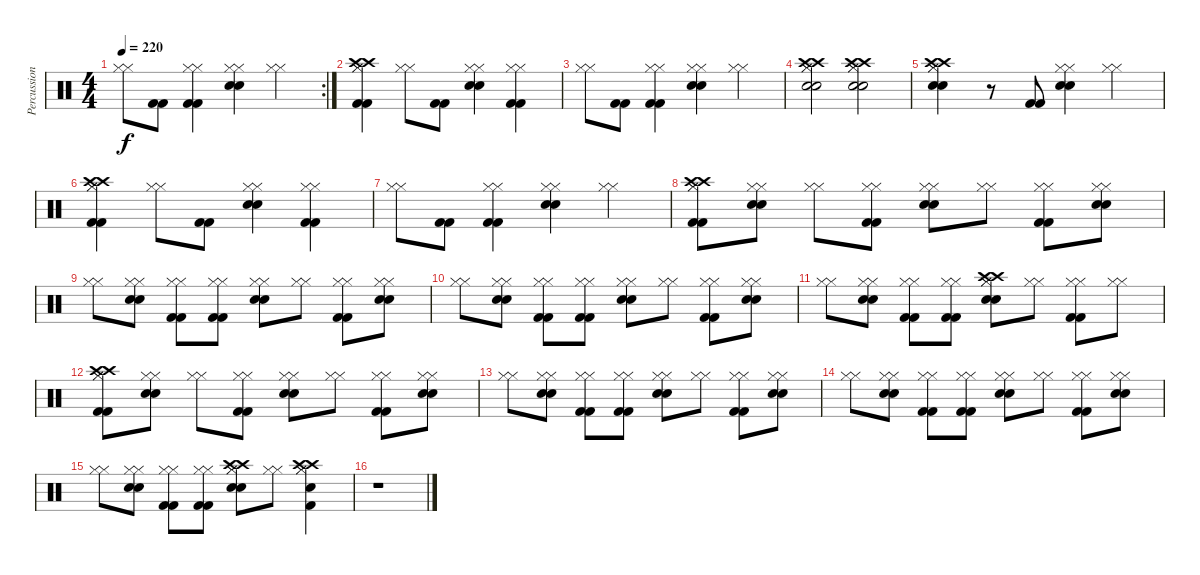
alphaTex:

\track ("Percussion" "Percussion") {instrument percussion}
\staff {score}
\articulation defaults
\rc 2
\ts (4 4)
\tempo 220
\clef neutral
\ks c
("Hi-Hat (closed)" "Hi-Hat (closed)").8{dy f} ("Kick (hit) 2" "Kick (hit) 2").8 ("Hi-Hat (closed)" "Hi-Hat (closed)" "Kick (hit) 2" "Kick (hit) 2").4 ("Hi-Hat (closed)" "Hi-Hat (closed)" "Electric Snare (hit)" "Electric Snare (hit)").4 ("Hi-Hat (closed)" "Hi-Hat (closed)").4 |
("Hi-Hat (closed)" "Hi-Hat (closed)" "Kick (hit) 2" "Kick (hit) 2" "Crash high (hit)" "Crash high (hit)").4 ("Hi-Hat (closed)" "Hi-Hat (closed)").8 ("Kick (hit) 2" "Kick (hit) 2").8 ("Hi-Hat (closed)" "Hi-Hat (closed)" "Electric Snare (hit)" "Electric Snare (hit)").4 ("Hi-Hat (closed)" "Hi-Hat (closed)" "Kick (hit) 2" "Kick (hit) 2").4 |
("Hi-Hat (closed)" "Hi-Hat (closed)").8 ("Kick (hit) 2" "Kick (hit) 2").8 ("Hi-Hat (closed)" "Hi-Hat (closed)" "Kick (hit) 2" "Kick (hit) 2").4 ("Hi-Hat (closed)" "Hi-Hat (closed)" "Electric Snare (hit)" "Electric Snare (hit)").4 ("Hi-Hat (closed)" "Hi-Hat (closed)").4 |
("Hi-Hat (closed)" "Hi-Hat (closed)" "Electric Snare (hit)" "Electric Snare (hit)" "Crash high (hit)" "Crash high (hit)").2 ("Hi-Hat (closed)" "Hi-Hat (closed)" "Electric Snare (hit)" "Electric Snare (hit)" "Crash high (hit)" "Crash high (hit)").2 |
("Hi-Hat (closed)" "Hi-Hat (closed)" "Electric Snare (hit)" "Electric Snare (hit)" "Crash high (hit)" "Crash high (hit)").4 r.8 ("Kick (hit) 2" "Kick (hit) 2").8 ("Hi-Hat (closed)" "Hi-Hat (closed)" "Electric Snare (hit)" "Electric Snare (hit)").4 ("Hi-Hat (closed)" "Hi-Hat (closed)").4 |
("Hi-Hat (closed)" "Hi-Hat (closed)" "Kick (hit) 2" "Kick (hit) 2" "Crash high (hit)" "Crash high (hit)").4 ("Hi-Hat (closed)" "Hi-Hat (closed)").8 ("Kick (hit) 2" "Kick (hit) 2").8 ("Hi-Hat (closed)" "Hi-Hat (closed)" "Electric Snare (hit)" "Electric Snare (hit)").4 ("Hi-Hat (closed)" "Hi-Hat (closed)" "Kick (hit) 2" "Kick (hit) 2").4 |
("Hi-Hat (closed)" "Hi-Hat (closed)").8 ("Kick (hit) 2" "Kick (hit) 2").8 ("Hi-Hat (closed)" "Hi-Hat (closed)" "Kick (hit) 2" "Kick (hit) 2").4 ("Hi-Hat (closed)" "Hi-Hat (closed)" "Electric Snare (hit)" "Electric Snare (hit)").4 ("Hi-Hat (closed)" "Hi-Hat (closed)").4 |
("Hi-Hat (closed)" "Hi-Hat (closed)" "Kick (hit) 2" "Kick (hit) 2" "Crash high (hit)" "Crash high (hit)").8 ("Hi-Hat (closed)" "Hi-Hat (closed)" "Electric Snare (hit)" "Electric Snare (hit)").8 ("Hi-Hat (closed)" "Hi-Hat (closed)").8 ("Hi-Hat (closed)" "Hi-Hat (closed)" "Kick (hit) 2" "Kick (hit) 2").8 ("Hi-Hat (closed)" "Hi-Hat (closed)" "Electric Snare (hit)" "Electric Snare (hit)").8 ("Hi-Hat (closed)" "Hi-Hat (closed)").8 ("Hi-Hat (closed)" "Hi-Hat (closed)" "Kick (hit) 2" "Kick (hit) 2").8 ("Hi-Hat (closed)" "Hi-Hat (closed)" "Electric Snare (hit)" "Electric Snare (hit)").8 |
("Hi-Hat (closed)" "Hi-Hat (closed)").8 ("Hi-Hat (closed)" "Hi-Hat (closed)" "Electric Snare (hit)" "Electric Snare (hit)").8 ("Hi-Hat (closed)" "Hi-Hat (closed)" "Kick (hit) 2" "Kick (hit) 2").8 ("Hi-Hat (closed)" "Hi-Hat (closed)" "Kick (hit) 2" "Kick (hit) 2").8 ("Hi-Hat (closed)" "Hi-Hat (closed)" "Electric Snare (hit)" "Electric Snare (hit)").8 ("Hi-Hat (closed)" "Hi-Hat (closed)").8 ("Hi-Hat (closed)" "Hi-Hat (closed)" "Kick (hit) 2" "Kick (hit) 2").8 ("Hi-Hat (closed)" "Hi-Hat (closed)" "Electric Snare (hit)" "Electric Snare (hit)").8 |
("Hi-Hat (closed)" "Hi-Hat (closed)").8 ("Hi-Hat (closed)" "Hi-Hat (closed)" "Electric Snare (hit)" "Electric Snare (hit)").8 ("Hi-Hat (closed)" "Hi-Hat (closed)" "Kick (hit) 2" "Kick (hit) 2").8 ("Hi-Hat (closed)" "Hi-Hat (closed)" "Kick (hit) 2" "Kick (hit) 2").8 ("Hi-Hat (closed)" "Hi-Hat (closed)" "Electric Snare (hit)" "Electric Snare (hit)").8 ("Hi-Hat (closed)" "Hi-Hat (closed)").8 ("Hi-Hat (closed)" "Hi-Hat (closed)" "Kick (hit) 2" "Kick (hit) 2").8 ("Hi-Hat (closed)" "Hi-Hat (closed)" "Electric Snare (hit)" "Electric Snare (hit)").8 |
("Hi-Hat (closed)" "Hi-Hat (closed)").8 ("Hi-Hat (closed)" "Hi-Hat (closed)" "Electric Snare (hit)" "Electric Snare (hit)").8 ("Hi-Hat (closed)" "Hi-Hat (closed)" "Kick (hit) 2" "Kick (hit) 2").8 ("Hi-Hat (closed)" "Hi-Hat (closed)" "Kick (hit) 2" "Kick (hit) 2").8 ("Hi-Hat (closed)" "Hi-Hat (closed)" "Electric Snare (hit)" "Electric Snare (hit)" "Crash high (hit)" "Crash high (hit)").8 ("Hi-Hat (closed)" "Hi-Hat (closed)").8 ("Hi-Hat (closed)" "Hi-Hat (closed)" "Kick (hit) 2" "Kick (hit) 2").8 ("Hi-Hat (closed)" "Hi-Hat (closed)").8 |
("Hi-Hat (closed)" "Hi-Hat (closed)" "Kick (hit) 2" "Kick (hit) 2" "Crash high (hit)" "Crash high (hit)").8 ("Hi-Hat (closed)" "Hi-Hat (closed)" "Electric Snare (hit)" "Electric Snare (hit)").8 ("Hi-Hat (closed)" "Hi-Hat (closed)").8 ("Hi-Hat (closed)" "Hi-Hat (closed)" "Kick (hit) 2" "Kick (hit) 2").8 ("Hi-Hat (closed)" "Hi-Hat (closed)" "Electric Snare (hit)" "Electric Snare (hit)").8 ("Hi-Hat (closed)" "Hi-Hat (closed)").8 ("Hi-Hat (closed)" "Hi-Hat (closed)" "Kick (hit) 2" "Kick (hit) 2").8 ("Hi-Hat (closed)" "Hi-Hat (closed)" "Electric Snare (hit)" "Electric Snare (hit)").8 |
("Hi-Hat (closed)" "Hi-Hat (closed)").8 ("Hi-Hat (closed)" "Hi-Hat (closed)" "Electric Snare (hit)" "Electric Snare (hit)").8 ("Hi-Hat (closed)" "Hi-Hat (closed)" "Kick (hit) 2" "Kick (hit) 2").8 ("Hi-Hat (closed)" "Hi-Hat (closed)" "Kick (hit) 2" "Kick (hit) 2").8 ("Hi-Hat (closed)" "Hi-Hat (closed)" "Electric Snare (hit)" "Electric Snare (hit)").8 ("Hi-Hat (closed)" "Hi-Hat (closed)").8 ("Hi-Hat (closed)" "Hi-Hat (closed)" "Kick (hit) 2" "Kick (hit) 2").8 ("Hi-Hat (closed)" "Hi-Hat (closed)" "Electric Snare (hit)" "Electric Snare (hit)").8 |
("Hi-Hat (closed)" "Hi-Hat (closed)").8 ("Hi-Hat (closed)" "Hi-Hat (closed)" "Electric Snare (hit)" "Electric Snare (hit)").8 ("Hi-Hat (closed)" "Hi-Hat (closed)" "Kick (hit) 2" "Kick (hit) 2").8 ("Hi-Hat (closed)" "Hi-Hat (closed)" "Kick (hit) 2" "Kick (hit) 2").8 ("Hi-Hat (closed)" "Hi-Hat (closed)" "Electric Snare (hit)" "Electric Snare (hit)").8 ("Hi-Hat (closed)" "Hi-Hat (closed)").8 ("Hi-Hat (closed)" "Hi-Hat (closed)" "Kick (hit) 2" "Kick (hit) 2").8 ("Hi-Hat (closed)" "Hi-Hat (closed)" "Electric Snare (hit)" "Electric Snare (hit)").8 |
("Hi-Hat (closed)" "Hi-Hat (closed)").8 ("Hi-Hat (closed)" "Hi-Hat (closed)" "Electric Snare (hit)" "Electric Snare (hit)").8 ("Hi-Hat (closed)" "Hi-Hat (closed)" "Kick (hit) 2" "Kick (hit) 2").8 ("Hi-Hat (closed)" "Hi-Hat (closed)" "Kick (hit) 2" "Kick (hit) 2").8 ("Hi-Hat (closed)" "Hi-Hat (closed)" "Electric Snare (hit)" "Electric Snare (hit)" "Crash high (hit)" "Crash high (hit)").8 ("Hi-Hat (closed)" "Hi-Hat (closed)").8 ("Hi-Hat (closed)" "Hi-Hat (closed)" "Electric Snare (hit)" "Kick (hit) 2" "Crash high (hit)" "Crash high (hit)").4 |
r.1
